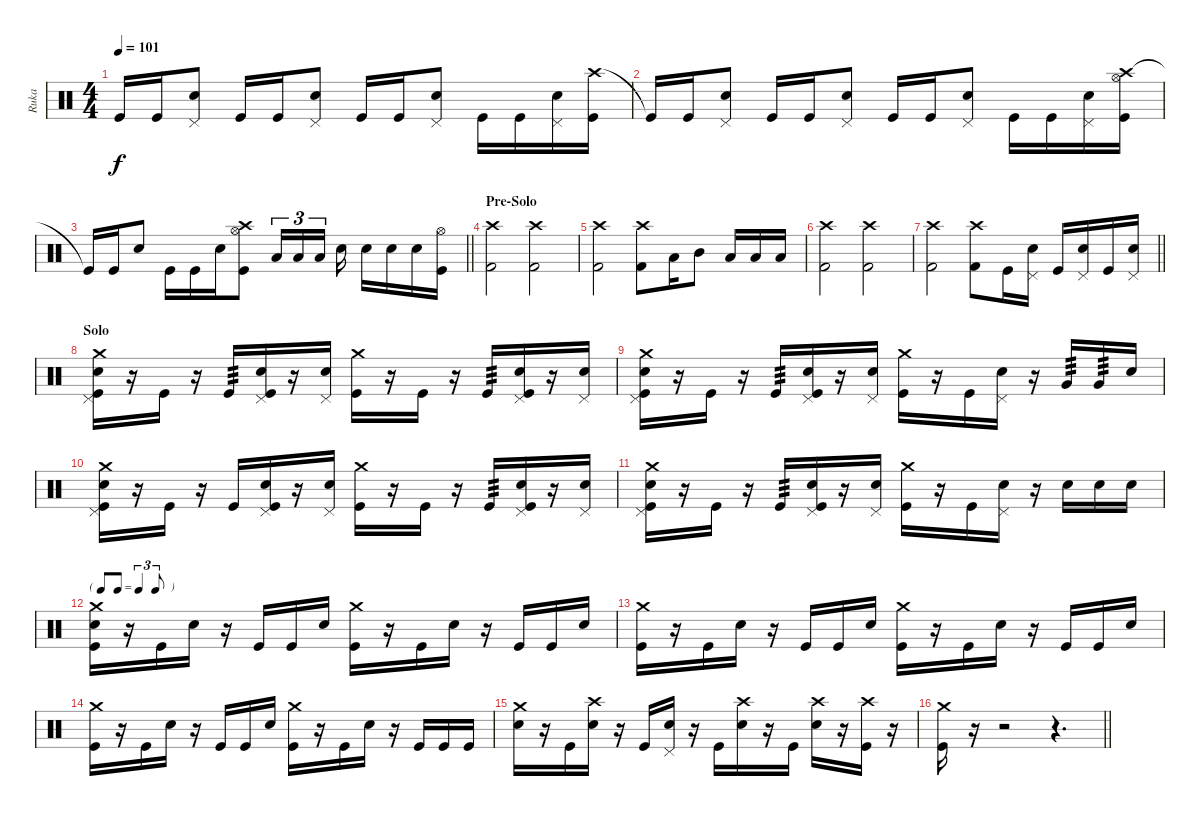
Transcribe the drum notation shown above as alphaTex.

\track ("Ruka" "Ruka") {instrument percussion}
\staff {score}
\articulation defaults
\ts (4 4)
\tempo 101
\clef neutral
\ks c "Kick (hit)"{t}.16{dy f} "Kick (hit)".16
("Pedal Hi-Hat (hit)" "Snare (hit) 2").8 "Kick (hit)".16 "Kick (hit)".16 ("Pedal Hi-Hat (hit)" "Snare (hit) 2").8 "Kick (hit)".16 "Kick (hit)".16 ("Pedal Hi-Hat (hit)" "Snare (hit) 2").8 "Kick (hit)".16 "Kick (hit)".16 ("Pedal Hi-Hat (hit)" "Snare (hit) 2").16 ("Crash high (hit)" "Kick (hit)").16 |
"Kick (hit)"{t}.16 "Kick (hit)".16 ("Pedal Hi-Hat (hit)" "Snare (hit) 2").8 "Kick (hit)".16 "Kick (hit)".16 ("Pedal Hi-Hat (hit)" "Snare (hit) 2").8 "Kick (hit)".16 "Kick (hit)".16 ("Pedal Hi-Hat (hit)" "Snare (hit) 2").8 "Kick (hit)".16 "Kick (hit)".16 ("Pedal Hi-Hat (hit)" "Snare (hit) 2").16 ("Crash high (hit)" "Hi-Hat (open)" "Kick (hit)").16 |
\barLineRight lightlight "Kick (hit)"{t}.16 "Kick (hit)".16 "Snare (hit) 2".8 "Kick (hit)".16 "Kick (hit)".16 "Snare (hit) 2".16
("Crash high (hit)" "Hi-Hat (open)" "Kick (hit)").8 "Low Tom (hit)".16{tu (3 2)} "Low Tom (hit)".16{tu (3 2)} "Low Tom (hit)".16{tu (3 2) beam splitsecondary} "Snare (hit) 2".16 "Snare (hit) 2".16 "Snare (hit) 2".16 "Snare (hit) 2".16 ("Hi-Hat (open)" "Kick (hit)").16 |
\section ("" "Pre-Solo")
("Crash high (hit)" "Kick (hit) 2").2 ("Crash high (hit)" "Kick (hit) 2").2 |
("Crash high (hit)" "Kick (hit) 2").2 ("Crash high (hit)" "Kick (hit) 2").8 "Low Tom (hit)".16 "Mid Tom (hit)".8 "Low Tom (hit)".16 "Low Tom (hit)".16 "Low Floor Tom (hit)".16 |
("Crash high (hit)" "Kick (hit) 2").2 ("Crash high (hit)" "Kick (hit) 2").2 |
\barLineRight lightlight
("Crash high (hit)" "Kick (hit) 2").2 ("Crash high (hit)" "Kick (hit) 2").8 "Kick (hit)".16 ("Pedal Hi-Hat (hit)" "Snare (hit) 2").16 "Kick (hit)".16 ("Pedal Hi-Hat (hit)" "Snare (hit) 2").16 "Kick (hit)".16 ("Pedal Hi-Hat (hit)" "Snare (hit) 2").16 |
\section ("" "Solo")
("Crash medium (hit)" "Pedal Hi-Hat (hit)" "Snare (hit) 2" "Kick (hit)").16 r.16 "Kick (hit)".16 r.16 "Kick (hit)".16{tp 3} ("Pedal Hi-Hat (hit)" "Snare (hit) 2" "Kick (hit)").16 r.16 ("Pedal Hi-Hat (hit)" "Snare (hit) 2").16 ("Crash medium (hit)" "Kick (hit)").16 r.16 "Kick (hit)".16 r.16 "Kick (hit)".16{tp 3} ("Pedal Hi-Hat (hit)" "Snare (hit) 2" "Kick (hit)").16 r.16 ("Pedal Hi-Hat (hit)" "Snare (hit) 2").16 |
("Crash medium (hit)" "Pedal Hi-Hat (hit)" "Snare (hit) 2" "Kick (hit)").16 r.16 "Kick (hit)".16 r.16 "Kick (hit)".16{tp 3} ("Pedal Hi-Hat (hit)" "Snare (hit) 2" "Kick (hit)").16 r.16 ("Pedal Hi-Hat (hit)" "Snare (hit) 2").16 ("Crash medium (hit)" "Kick (hit)").16 r.16 "Kick (hit)".16 ("Pedal Hi-Hat (hit)" "Snare (hit) 2").16 r.16 "Very Low Tom (hit)".16{tp 3} "Very Low Tom (hit)".16{tp 3} "Snare (hit) 2".16 |
("Crash medium (hit)" "Pedal Hi-Hat (hit)" "Snare (hit) 2" "Kick (hit)").16 r.16 "Kick (hit)".16 r.16 "Kick (hit)".16 ("Pedal Hi-Hat (hit)" "Snare (hit) 2" "Kick (hit)").16 r.16 ("Pedal Hi-Hat (hit)" "Snare (hit) 2").16 ("Crash medium (hit)" "Kick (hit)").16 r.16 "Kick (hit)".16 r.16 "Kick (hit)".16{tp 3} ("Pedal Hi-Hat (hit)" "Snare (hit) 2" "Kick (hit)").16 r.16 ("Pedal Hi-Hat (hit)" "Snare (hit) 2").16 |
("Crash medium (hit)" "Pedal Hi-Hat (hit)" "Snare (hit) 2" "Kick (hit)").16 r.16 "Kick (hit)".16 r.16 "Kick (hit)".16{tp 3} ("Pedal Hi-Hat (hit)" "Snare (hit) 2" "Kick (hit)").16 r.16 ("Pedal Hi-Hat (hit)" "Snare (hit) 2").16 ("Crash medium (hit)" "Kick (hit)").16 r.16 "Kick (hit)".16 ("Pedal Hi-Hat (hit)" "Snare (hit) 2").16 r.16 "Snare (hit) 2".16 "Snare (hit) 2".16 "Snare (hit) 2".16 |
\tf triplet8th
("Crash medium (hit)" "Snare (hit) 2" "Kick (hit)").16 r.16 "Kick (hit)".16 "Snare (hit) 2".16 r.16 "Kick (hit)".16 "Kick (hit)".16 "Snare (hit) 2".16 ("Crash medium (hit)" "Kick (hit)").16 r.16 "Kick (hit)".16 "Snare (hit) 2".16 r.16 "Kick (hit)".16 "Kick (hit)".16 "Snare (hit) 2".16 |
("Crash medium (hit)" "Kick (hit)").16 r.16 "Kick (hit)".16 "Snare (hit) 2".16 r.16 "Kick (hit)".16 "Kick (hit)".16 "Snare (hit) 2".16 ("Crash medium (hit)" "Kick (hit)").16 r.16 "Kick (hit)".16 "Snare (hit) 2".16 r.16 "Kick (hit)".16 "Kick (hit)".16 "Snare (hit) 2".16 |
("Crash medium (hit)" "Kick (hit)").16 r.16 "Kick (hit)".16 "Snare (hit) 2".16 r.16 "Kick (hit)".16 "Kick (hit)".16 "Snare (hit) 2".16 ("Crash medium (hit)" "Kick (hit)").16 r.16 "Kick (hit)".16 "Snare (hit) 2".16 r.16 "Kick (hit)".16 "Kick (hit)".16 "Kick (hit)".16 |
("Crash medium (hit)" "Snare (hit) 2").16 r.16 "Kick (hit)".16 ("Crash high (hit)" "Snare (hit) 2").16 r.16 "Kick (hit)".16 ("Pedal Hi-Hat (hit)" "Snare (hit) 2").16 r.16 "Kick (hit)".16 ("Crash high (hit)" "Snare (hit) 2").16 r.16 "Kick (hit)".16 ("Crash high (hit)" "Snare (hit) 2").16 r.16 ("Crash high (hit)" "Kick (hit)").16 r.16 |
\barLineRight lightlight
("Crash medium (hit)" "Kick (hit)").16 r.16 r.2 r.4{d}
